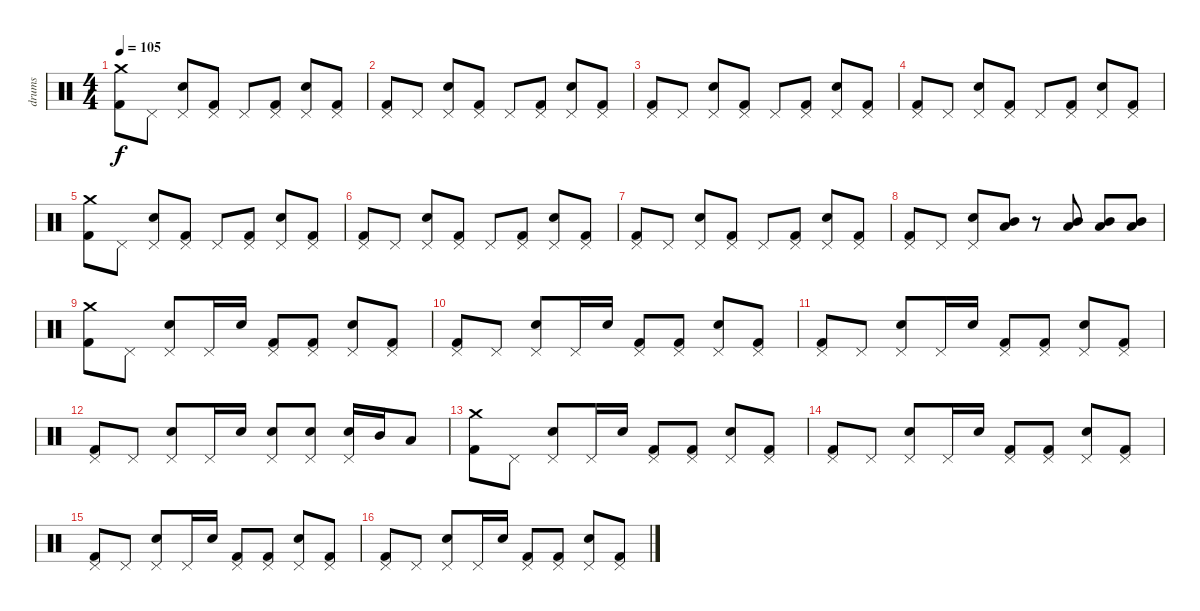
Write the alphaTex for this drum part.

\track ("drums" "drums") {instrument percussion}
\staff {score}
\articulation defaults
\ts (4 4)
\tempo 105
\clef neutral
\ks c
("Crash medium (hit)" "Kick (hit) 2").8{dy f} "Pedal Hi-Hat (hit)".8 ("Pedal Hi-Hat (hit)" "Electric Snare (hit)").8 ("Pedal Hi-Hat (hit)" "Kick (hit) 2").8 "Pedal Hi-Hat (hit)".8 ("Pedal Hi-Hat (hit)" "Kick (hit) 2").8 ("Pedal Hi-Hat (hit)" "Electric Snare (hit)").8 ("Pedal Hi-Hat (hit)" "Kick (hit) 2").8 |
("Pedal Hi-Hat (hit)" "Kick (hit) 2").8 "Pedal Hi-Hat (hit)".8 ("Pedal Hi-Hat (hit)" "Electric Snare (hit)").8 ("Pedal Hi-Hat (hit)" "Kick (hit) 2").8 "Pedal Hi-Hat (hit)".8 ("Pedal Hi-Hat (hit)" "Kick (hit) 2").8 ("Pedal Hi-Hat (hit)" "Electric Snare (hit)").8 ("Pedal Hi-Hat (hit)" "Kick (hit) 2").8 |
("Pedal Hi-Hat (hit)" "Kick (hit) 2").8 "Pedal Hi-Hat (hit)".8 ("Pedal Hi-Hat (hit)" "Electric Snare (hit)").8 ("Pedal Hi-Hat (hit)" "Kick (hit) 2").8 "Pedal Hi-Hat (hit)".8 ("Pedal Hi-Hat (hit)" "Kick (hit) 2").8 ("Pedal Hi-Hat (hit)" "Electric Snare (hit)").8 ("Pedal Hi-Hat (hit)" "Kick (hit) 2").8 |
("Pedal Hi-Hat (hit)" "Kick (hit) 2").8 "Pedal Hi-Hat (hit)".8 ("Pedal Hi-Hat (hit)" "Electric Snare (hit)").8 ("Pedal Hi-Hat (hit)" "Kick (hit) 2").8 "Pedal Hi-Hat (hit)".8 ("Pedal Hi-Hat (hit)" "Kick (hit) 2").8 ("Pedal Hi-Hat (hit)" "Electric Snare (hit)").8 ("Pedal Hi-Hat (hit)" "Kick (hit) 2").8 |
("Crash medium (hit)" "Kick (hit) 2").8 "Pedal Hi-Hat (hit)".8 ("Pedal Hi-Hat (hit)" "Electric Snare (hit)").8 ("Pedal Hi-Hat (hit)" "Kick (hit) 2").8 "Pedal Hi-Hat (hit)".8 ("Pedal Hi-Hat (hit)" "Kick (hit) 2").8 ("Pedal Hi-Hat (hit)" "Electric Snare (hit)").8 ("Pedal Hi-Hat (hit)" "Kick (hit) 2").8 |
("Pedal Hi-Hat (hit)" "Kick (hit) 2").8 "Pedal Hi-Hat (hit)".8 ("Pedal Hi-Hat (hit)" "Electric Snare (hit)").8 ("Pedal Hi-Hat (hit)" "Kick (hit) 2").8 "Pedal Hi-Hat (hit)".8 ("Pedal Hi-Hat (hit)" "Kick (hit) 2").8 ("Pedal Hi-Hat (hit)" "Electric Snare (hit)").8 ("Pedal Hi-Hat (hit)" "Kick (hit) 2").8 |
("Pedal Hi-Hat (hit)" "Kick (hit) 2").8 "Pedal Hi-Hat (hit)".8 ("Pedal Hi-Hat (hit)" "Electric Snare (hit)").8 ("Pedal Hi-Hat (hit)" "Kick (hit) 2").8 "Pedal Hi-Hat (hit)".8 ("Pedal Hi-Hat (hit)" "Kick (hit) 2").8 ("Pedal Hi-Hat (hit)" "Electric Snare (hit)").8 ("Pedal Hi-Hat (hit)" "Kick (hit) 2").8 |
("Pedal Hi-Hat (hit)" "Kick (hit) 2").8 "Pedal Hi-Hat (hit)".8 ("Pedal Hi-Hat (hit)" "Electric Snare (hit)").8 ("Low Tom (hit)" "Mid Tom (hit)").8 r.8 ("Mid Tom (hit)" "Low Tom (hit)").8 ("Mid Tom (hit)" "Low Tom (hit)").8 ("Mid Tom (hit)" "Low Tom (hit)").8 |
("Crash medium (hit)" "Kick (hit) 2").8 "Pedal Hi-Hat (hit)".8 ("Pedal Hi-Hat (hit)" "Electric Snare (hit)").8 "Pedal Hi-Hat (hit)".16 "Electric Snare (hit)".16 ("Pedal Hi-Hat (hit)" "Kick (hit) 2").8 ("Pedal Hi-Hat (hit)" "Kick (hit) 2").8 ("Pedal Hi-Hat (hit)" "Electric Snare (hit)").8 ("Pedal Hi-Hat (hit)" "Kick (hit) 2").8 |
("Pedal Hi-Hat (hit)" "Kick (hit) 2").8 "Pedal Hi-Hat (hit)".8 ("Pedal Hi-Hat (hit)" "Electric Snare (hit)").8 "Pedal Hi-Hat (hit)".16 "Electric Snare (hit)".16 ("Pedal Hi-Hat (hit)" "Kick (hit) 2").8 ("Pedal Hi-Hat (hit)" "Kick (hit) 2").8 ("Pedal Hi-Hat (hit)" "Electric Snare (hit)").8 ("Pedal Hi-Hat (hit)" "Kick (hit) 2").8 |
("Pedal Hi-Hat (hit)" "Kick (hit) 2").8 "Pedal Hi-Hat (hit)".8 ("Pedal Hi-Hat (hit)" "Electric Snare (hit)").8 "Pedal Hi-Hat (hit)".16 "Electric Snare (hit)".16 ("Pedal Hi-Hat (hit)" "Kick (hit) 2").8 ("Pedal Hi-Hat (hit)" "Kick (hit) 2").8 ("Pedal Hi-Hat (hit)" "Electric Snare (hit)").8 ("Pedal Hi-Hat (hit)" "Kick (hit) 2").8 |
("Pedal Hi-Hat (hit)" "Kick (hit) 2").8 "Pedal Hi-Hat (hit)".8 ("Pedal Hi-Hat (hit)" "Electric Snare (hit)").8 "Pedal Hi-Hat (hit)".16 "Electric Snare (hit)".16 ("Pedal Hi-Hat (hit)" "Electric Snare (hit)").8 ("Pedal Hi-Hat (hit)" "Electric Snare (hit)").8 ("Pedal Hi-Hat (hit)" "Electric Snare (hit)").16 "Mid Tom (hit)".16 "Low Tom (hit)".8 |
("Crash medium (hit)" "Kick (hit) 2").8 "Pedal Hi-Hat (hit)".8 ("Pedal Hi-Hat (hit)" "Electric Snare (hit)").8 "Pedal Hi-Hat (hit)".16 "Electric Snare (hit)".16 ("Pedal Hi-Hat (hit)" "Kick (hit) 2").8 ("Pedal Hi-Hat (hit)" "Kick (hit) 2").8 ("Pedal Hi-Hat (hit)" "Electric Snare (hit)").8 ("Pedal Hi-Hat (hit)" "Kick (hit) 2").8 |
("Pedal Hi-Hat (hit)" "Kick (hit) 2").8 "Pedal Hi-Hat (hit)".8 ("Pedal Hi-Hat (hit)" "Electric Snare (hit)").8 "Pedal Hi-Hat (hit)".16 "Electric Snare (hit)".16 ("Pedal Hi-Hat (hit)" "Kick (hit) 2").8 ("Pedal Hi-Hat (hit)" "Kick (hit) 2").8 ("Pedal Hi-Hat (hit)" "Electric Snare (hit)").8 ("Pedal Hi-Hat (hit)" "Kick (hit) 2").8 |
("Pedal Hi-Hat (hit)" "Kick (hit) 2").8 "Pedal Hi-Hat (hit)".8 ("Pedal Hi-Hat (hit)" "Electric Snare (hit)").8 "Pedal Hi-Hat (hit)".16 "Electric Snare (hit)".16 ("Pedal Hi-Hat (hit)" "Kick (hit) 2").8 ("Pedal Hi-Hat (hit)" "Kick (hit) 2").8 ("Pedal Hi-Hat (hit)" "Electric Snare (hit)").8 ("Pedal Hi-Hat (hit)" "Kick (hit) 2").8 |
("Pedal Hi-Hat (hit)" "Kick (hit) 2").8 "Pedal Hi-Hat (hit)".8 ("Pedal Hi-Hat (hit)" "Electric Snare (hit)").8 "Pedal Hi-Hat (hit)".16 "Electric Snare (hit)".16 ("Pedal Hi-Hat (hit)" "Kick (hit) 2").8 ("Pedal Hi-Hat (hit)" "Kick (hit) 2").8 ("Pedal Hi-Hat (hit)" "Electric Snare (hit)").8 ("Pedal Hi-Hat (hit)" "Kick (hit) 2").8
